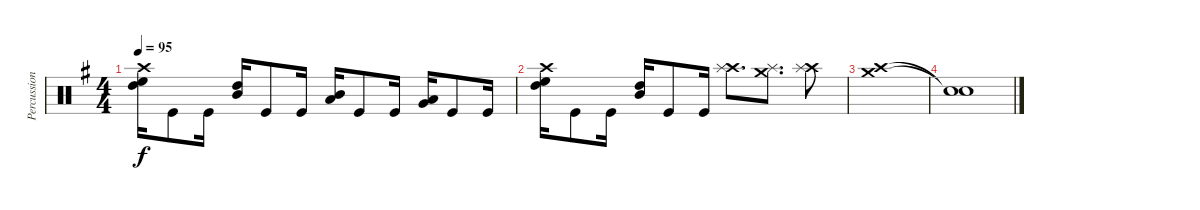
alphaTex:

\track ("Percussion" "Percussion") {instrument percussion}
\staff {score}
\articulation defaults
\ts (4 4)
\tempo 95
\clef neutral
\ks eminor
("Crash high (hit)" "High Floor Tom (hit)" "High Tom (hit)").16{dy f} "Kick (hit)".8 "Kick (hit)".16 ("High Tom (hit)" "Mid Tom (hit)").16 "Kick (hit)".8 "Kick (hit)".16 ("Mid Tom (hit)" "Low Tom (hit)").16 "Kick (hit)".8 "Kick (hit)".16 ("Low Tom (hit)" "Very Low Tom (hit)").16 "Kick (hit)".8 "Kick (hit)".16 |
("Crash high (hit)" "High Floor Tom (hit)" "High Tom (hit)").16 "Kick (hit)".8 "Kick (hit)".16 ("High Tom (hit)" "Mid Tom (hit)").16 "Kick (hit)".8 "Kick (hit)".16 ("Crash high (hit)" "Splash (hit)").8{d} ("Crash medium (hit)" "Splash (hit)").8{d} ("Crash high (hit)" "Splash (hit)").8 |
("Crash high (hit)" "Crash medium (hit)").1 |
("Snare (hit)"{t} "Snare (hit)"{t}).1
